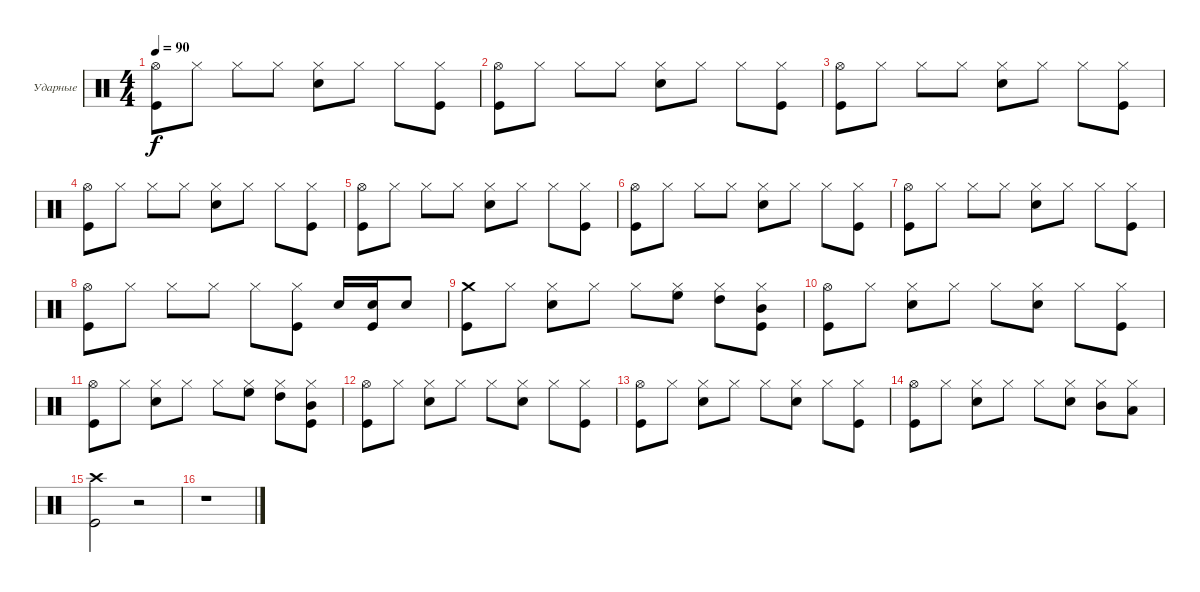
\defaultSystemsLayout 4
\bracketExtendMode groupsimilarinstruments
\firstSystemTrackNameOrientation horizontal
\otherSystemsTrackNameOrientation horizontal
\track ("Drums" "Ударные") {instrument percussion}
\staff {score}
\articulation defaults
\ts (4 4)
\tempo 90
\clef neutral
\ks c
("Hi-Hat (open)" "Kick (hit)").8{dy f} "Hi-Hat (closed)".8 "Hi-Hat (closed)".8 "Hi-Hat (closed)".8 ("Hi-Hat (closed)" "Snare (hit) 2").8 "Hi-Hat (closed)".8 "Hi-Hat (closed)".8 ("Hi-Hat (closed)" "Kick (hit)").8 |
("Hi-Hat (open)" "Kick (hit)").8 "Hi-Hat (closed)".8 "Hi-Hat (closed)".8 "Hi-Hat (closed)".8 ("Hi-Hat (closed)" "Snare (hit) 2").8 "Hi-Hat (closed)".8 "Hi-Hat (closed)".8 ("Hi-Hat (closed)" "Kick (hit)").8 |
("Hi-Hat (open)" "Kick (hit)").8 "Hi-Hat (closed)".8 "Hi-Hat (closed)".8 "Hi-Hat (closed)".8 ("Hi-Hat (closed)" "Snare (hit) 2").8 "Hi-Hat (closed)".8 "Hi-Hat (closed)".8 ("Hi-Hat (closed)" "Kick (hit)").8 |
("Hi-Hat (open)" "Kick (hit)").8 "Hi-Hat (closed)".8 "Hi-Hat (closed)".8 "Hi-Hat (closed)".8 ("Hi-Hat (closed)" "Snare (hit) 2").8 "Hi-Hat (closed)".8 "Hi-Hat (closed)".8 ("Hi-Hat (closed)" "Kick (hit)").8 |
("Hi-Hat (open)" "Kick (hit)").8 "Hi-Hat (closed)".8 "Hi-Hat (closed)".8 "Hi-Hat (closed)".8 ("Hi-Hat (closed)" "Snare (hit) 2").8 "Hi-Hat (closed)".8 "Hi-Hat (closed)".8 ("Hi-Hat (closed)" "Kick (hit)").8 |
("Hi-Hat (open)" "Kick (hit)").8 "Hi-Hat (closed)".8 "Hi-Hat (closed)".8 "Hi-Hat (closed)".8 ("Hi-Hat (closed)" "Snare (hit) 2").8 "Hi-Hat (closed)".8 "Hi-Hat (closed)".8 ("Hi-Hat (closed)" "Kick (hit)").8 |
("Hi-Hat (open)" "Kick (hit)").8 "Hi-Hat (closed)".8 "Hi-Hat (closed)".8 "Hi-Hat (closed)".8 ("Hi-Hat (closed)" "Snare (hit) 2").8 "Hi-Hat (closed)".8 "Hi-Hat (closed)".8 ("Hi-Hat (closed)" "Kick (hit)").8 |
("Hi-Hat (open)" "Kick (hit)").8 "Hi-Hat (closed)".8 "Hi-Hat (closed)".8 "Hi-Hat (closed)".8 "Hi-Hat (closed)".8 ("Hi-Hat (closed)" "Kick (hit)").8 "Snare (hit) 2".16 ("Snare (hit) 2" "Kick (hit)").16 "Snare (hit) 2".8 |
("Crash medium (hit)" "Kick (hit)").8 "Hi-Hat (closed)".8 ("Hi-Hat (closed)" "Snare (hit) 2").8 "Hi-Hat (closed)".8 "Hi-Hat (closed)".8 ("Hi-Hat (closed)" "High Floor Tom (hit)").8 ("Hi-Hat (closed)" "High Tom (hit)").8 ("Hi-Hat (closed)" "Kick (hit)" "Mid Tom (hit)").8 |
("Hi-Hat (open)" "Kick (hit)").8 "Hi-Hat (closed)".8 ("Hi-Hat (closed)" "Snare (hit) 2").8 "Hi-Hat (closed)".8 "Hi-Hat (closed)".8 ("Hi-Hat (closed)" "Snare (hit) 2").8 "Hi-Hat (closed)".8 ("Hi-Hat (closed)" "Kick (hit)").8 |
("Hi-Hat (open)" "Kick (hit)").8 "Hi-Hat (closed)".8 ("Hi-Hat (closed)" "Snare (hit) 2").8 "Hi-Hat (closed)".8 "Hi-Hat (closed)".8 ("Hi-Hat (closed)" "High Floor Tom (hit)").8 ("Hi-Hat (closed)" "High Tom (hit)").8 ("Hi-Hat (closed)" "Kick (hit)" "Mid Tom (hit)").8 |
("Hi-Hat (open)" "Kick (hit)").8 "Hi-Hat (closed)".8 ("Hi-Hat (closed)" "Snare (hit) 2").8 "Hi-Hat (closed)".8 "Hi-Hat (closed)".8 ("Hi-Hat (closed)" "Snare (hit) 2").8 "Hi-Hat (closed)".8 ("Hi-Hat (closed)" "Kick (hit)").8 |
("Hi-Hat (open)" "Kick (hit)").8 "Hi-Hat (closed)".8 ("Hi-Hat (closed)" "Snare (hit) 2").8 "Hi-Hat (closed)".8 "Hi-Hat (closed)".8 ("Hi-Hat (closed)" "Snare (hit) 2").8 "Hi-Hat (closed)".8 ("Hi-Hat (closed)" "Kick (hit)").8 |
("Hi-Hat (open)" "Kick (hit)").8 "Hi-Hat (closed)".8 ("Hi-Hat (closed)" "Snare (hit) 2").8 "Hi-Hat (closed)".8 "Hi-Hat (closed)".8 ("Hi-Hat (closed)" "Snare (hit) 2").8 ("Hi-Hat (closed)" "Mid Tom (hit)").8 ("Hi-Hat (closed)" "Low Tom (hit)").8 |
("Crash high (hit)" "Kick (hit)").2 r.2 |
r.1
